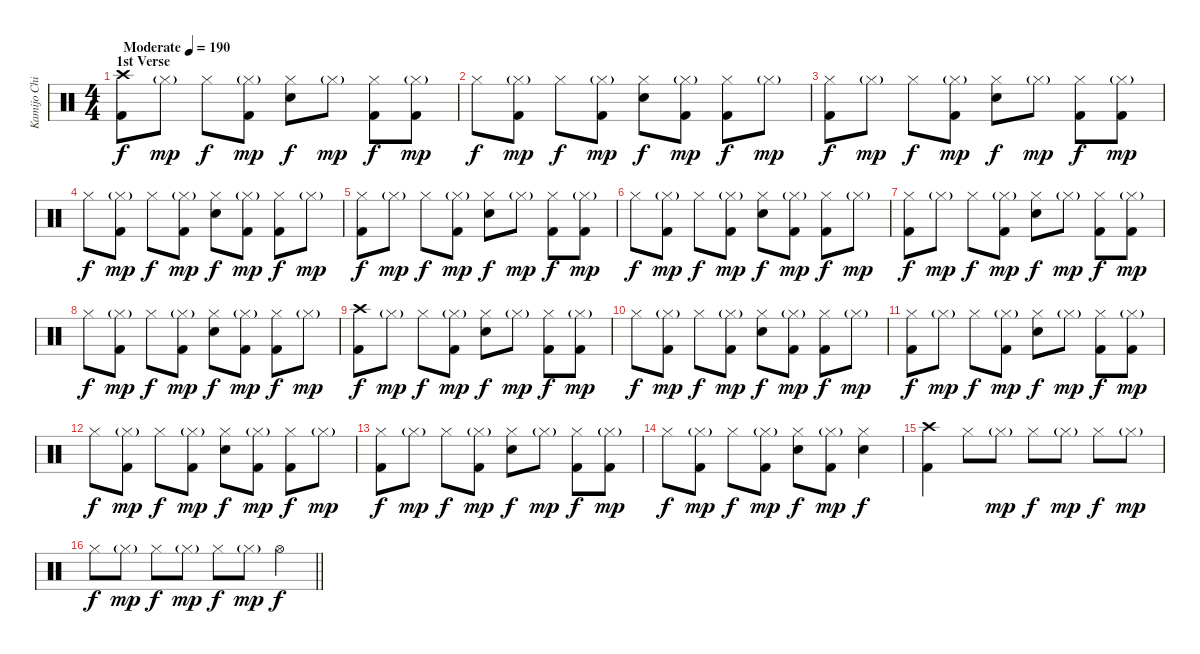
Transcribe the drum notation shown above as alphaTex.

\track ("Kamijo Chihiro" "Kamijo Chi") {instrument percussion}
\staff {score}
\articulation defaults
\ts (4 4)
\section ("" "1st Verse")
\tempo (190 "Moderate")
\clef neutral
\ks c
("Crash high (hit)" "Kick (hit) 2").8{dy f} "Hi-Hat (closed)"{g}.8{dy mp} "Hi-Hat (closed)".8{dy f} ("Hi-Hat (closed)"{g} "Kick (hit) 2").8{dy mp} ("Hi-Hat (closed)" "Snare (hit) 2").8{dy f} "Hi-Hat (closed)"{g}.8{dy mp} ("Hi-Hat (closed)" "Kick (hit) 2").8{dy f} ("Hi-Hat (closed)"{g} "Kick (hit) 2").8{dy mp} |
"Hi-Hat (closed)".8{dy f} ("Hi-Hat (closed)"{g} "Kick (hit) 2").8{dy mp} "Hi-Hat (closed)".8{dy f} ("Hi-Hat (closed)"{g} "Kick (hit) 2").8{dy mp} ("Hi-Hat (closed)" "Snare (hit) 2").8{dy f} ("Hi-Hat (closed)"{g} "Kick (hit) 2").8{dy mp} ("Hi-Hat (closed)" "Kick (hit) 2").8{dy f} "Hi-Hat (closed)"{g}.8{dy mp} |
("Hi-Hat (closed)" "Kick (hit) 2").8{dy f} "Hi-Hat (closed)"{g}.8{dy mp} "Hi-Hat (closed)".8{dy f} ("Hi-Hat (closed)"{g} "Kick (hit) 2").8{dy mp} ("Hi-Hat (closed)" "Snare (hit) 2").8{dy f} "Hi-Hat (closed)"{g}.8{dy mp} ("Hi-Hat (closed)" "Kick (hit) 2").8{dy f} ("Hi-Hat (closed)"{g} "Kick (hit) 2").8{dy mp} |
"Hi-Hat (closed)".8{dy f} ("Hi-Hat (closed)"{g} "Kick (hit) 2").8{dy mp} "Hi-Hat (closed)".8{dy f} ("Hi-Hat (closed)"{g} "Kick (hit) 2").8{dy mp} ("Hi-Hat (closed)" "Snare (hit) 2").8{dy f} ("Hi-Hat (closed)"{g} "Kick (hit) 2").8{dy mp} ("Hi-Hat (closed)" "Kick (hit) 2").8{dy f} "Hi-Hat (closed)"{g}.8{dy mp} |
("Hi-Hat (closed)" "Kick (hit) 2").8{dy f} "Hi-Hat (closed)"{g}.8{dy mp} "Hi-Hat (closed)".8{dy f} ("Hi-Hat (closed)"{g} "Kick (hit) 2").8{dy mp} ("Hi-Hat (closed)" "Snare (hit) 2").8{dy f} "Hi-Hat (closed)"{g}.8{dy mp} ("Hi-Hat (closed)" "Kick (hit) 2").8{dy f} ("Hi-Hat (closed)"{g} "Kick (hit) 2").8{dy mp} |
"Hi-Hat (closed)".8{dy f} ("Hi-Hat (closed)"{g} "Kick (hit) 2").8{dy mp} "Hi-Hat (closed)".8{dy f} ("Hi-Hat (closed)"{g} "Kick (hit) 2").8{dy mp} ("Hi-Hat (closed)" "Snare (hit) 2").8{dy f} ("Hi-Hat (closed)"{g} "Kick (hit) 2").8{dy mp} ("Hi-Hat (closed)" "Kick (hit) 2").8{dy f} "Hi-Hat (closed)"{g}.8{dy mp} |
("Hi-Hat (closed)" "Kick (hit) 2").8{dy f} "Hi-Hat (closed)"{g}.8{dy mp} "Hi-Hat (closed)".8{dy f} ("Hi-Hat (closed)"{g} "Kick (hit) 2").8{dy mp} ("Hi-Hat (closed)" "Snare (hit) 2").8{dy f} "Hi-Hat (closed)"{g}.8{dy mp} ("Hi-Hat (closed)" "Kick (hit) 2").8{dy f} ("Hi-Hat (closed)"{g} "Kick (hit) 2").8{dy mp} |
"Hi-Hat (closed)".8{dy f} ("Hi-Hat (closed)"{g} "Kick (hit) 2").8{dy mp} "Hi-Hat (closed)".8{dy f} ("Hi-Hat (closed)"{g} "Kick (hit) 2").8{dy mp} ("Hi-Hat (closed)" "Snare (hit) 2").8{dy f} ("Hi-Hat (closed)"{g} "Kick (hit) 2").8{dy mp} ("Hi-Hat (closed)" "Kick (hit) 2").8{dy f} "Hi-Hat (closed)"{g}.8{dy mp} |
("Crash high (hit)" "Kick (hit) 2").8{dy f} "Hi-Hat (closed)"{g}.8{dy mp} "Hi-Hat (closed)".8{dy f} ("Hi-Hat (closed)"{g} "Kick (hit) 2").8{dy mp} ("Hi-Hat (closed)" "Snare (hit) 2").8{dy f} "Hi-Hat (closed)"{g}.8{dy mp} ("Hi-Hat (closed)" "Kick (hit) 2").8{dy f} ("Hi-Hat (closed)"{g} "Kick (hit) 2").8{dy mp} |
"Hi-Hat (closed)".8{dy f} ("Hi-Hat (closed)"{g} "Kick (hit) 2").8{dy mp} "Hi-Hat (closed)".8{dy f} ("Hi-Hat (closed)"{g} "Kick (hit) 2").8{dy mp} ("Hi-Hat (closed)" "Snare (hit) 2").8{dy f} ("Hi-Hat (closed)"{g} "Kick (hit) 2").8{dy mp} ("Hi-Hat (closed)" "Kick (hit) 2").8{dy f} "Hi-Hat (closed)"{g}.8{dy mp} |
("Hi-Hat (closed)" "Kick (hit) 2").8{dy f} "Hi-Hat (closed)"{g}.8{dy mp} "Hi-Hat (closed)".8{dy f} ("Hi-Hat (closed)"{g} "Kick (hit) 2").8{dy mp} ("Hi-Hat (closed)" "Snare (hit) 2").8{dy f} "Hi-Hat (closed)"{g}.8{dy mp} ("Hi-Hat (closed)" "Kick (hit) 2").8{dy f} ("Hi-Hat (closed)"{g} "Kick (hit) 2").8{dy mp} |
"Hi-Hat (closed)".8{dy f} ("Hi-Hat (closed)"{g} "Kick (hit) 2").8{dy mp} "Hi-Hat (closed)".8{dy f} ("Hi-Hat (closed)"{g} "Kick (hit) 2").8{dy mp} ("Hi-Hat (closed)" "Snare (hit) 2").8{dy f} ("Hi-Hat (closed)"{g} "Kick (hit) 2").8{dy mp} ("Hi-Hat (closed)" "Kick (hit) 2").8{dy f} "Hi-Hat (closed)"{g}.8{dy mp} |
("Hi-Hat (closed)" "Kick (hit) 2").8{dy f} "Hi-Hat (closed)"{g}.8{dy mp} "Hi-Hat (closed)".8{dy f} ("Hi-Hat (closed)"{g} "Kick (hit) 2").8{dy mp} ("Hi-Hat (closed)" "Snare (hit) 2").8{dy f} "Hi-Hat (closed)"{g}.8{dy mp} ("Hi-Hat (closed)" "Kick (hit) 2").8{dy f} ("Hi-Hat (closed)"{g} "Kick (hit) 2").8{dy mp} |
"Hi-Hat (closed)".8{dy f} ("Hi-Hat (closed)"{g} "Kick (hit) 2").8{dy mp} "Hi-Hat (closed)".8{dy f} ("Hi-Hat (closed)"{g} "Kick (hit) 2").8{dy mp} ("Hi-Hat (closed)" "Snare (hit) 2").8{dy f} ("Hi-Hat (closed)"{g} "Kick (hit) 2").8{dy mp} ("Hi-Hat (closed)" "Snare (hit) 2").4{dy f} |
("Crash high (hit)" "Kick (hit) 2").4 "Hi-Hat (closed)".8 "Hi-Hat (closed)"{g}.8{dy mp} "Hi-Hat (closed)".8{dy f} "Hi-Hat (closed)"{g}.8{dy mp} "Hi-Hat (closed)".8{dy f} "Hi-Hat (closed)"{g}.8{dy mp} |
\barLineRight lightlight "Hi-Hat (closed)".8{dy f} "Hi-Hat (closed)"{g}.8{dy mp} "Hi-Hat (closed)".8{dy f} "Hi-Hat (closed)"{g}.8{dy mp} "Hi-Hat (closed)".8{dy f} "Hi-Hat (closed)"{g}.8{dy mp} "Hi-Hat (open)".4{dy f}
